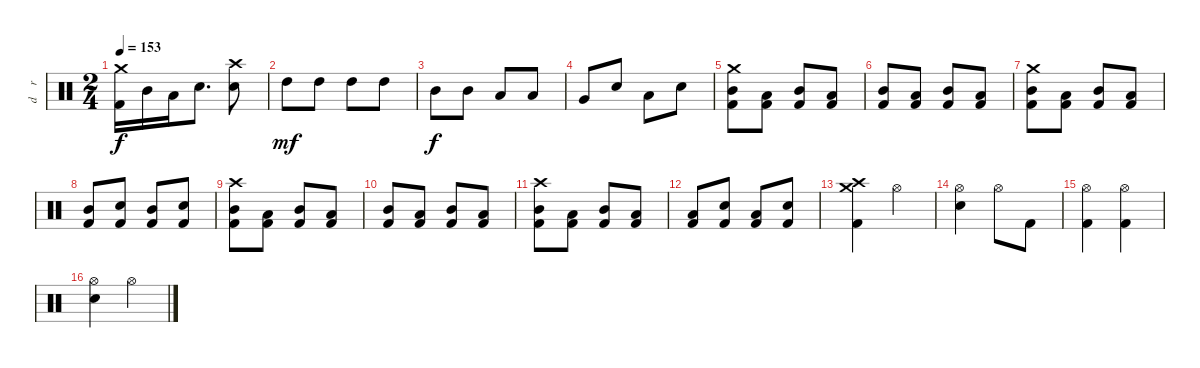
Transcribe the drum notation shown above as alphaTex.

\track ("d    r     u    m    s" "d    r    ") {instrument percussion}
\staff {score}
\articulation defaults
\ts (2 4)
\tempo 153
\clef neutral
\ks c
("Crash medium (hit)" "Kick (hit) 2").16{dy f} "Mid Tom (hit)".16 "Low Tom (hit)".16 "Electric Snare (hit)".8{d} ("Crash high (hit)" "Electric Snare (hit)").8 |
"High Tom (hit)".8{dy mf} "High Tom (hit)".8 "High Tom (hit)".8 "High Tom (hit)".8 |
"Mid Tom (hit)".8{dy f} "Mid Tom (hit)".8 "Low Tom (hit)".8 "Low Tom (hit)".8 |
"Very Low Tom (hit)".8 "Electric Snare (hit)".8 "Low Floor Tom (hit)".8 "Electric Snare (hit)".8 |
("Crash medium (hit)" "Mid Tom (hit)" "Kick (hit) 2").8 ("Low Tom (hit)" "Kick (hit) 2").8 ("Mid Tom (hit)" "Kick (hit) 2").8 ("Low Tom (hit)" "Kick (hit) 2").8 |
("Mid Tom (hit)" "Kick (hit) 2").8 ("Low Tom (hit)" "Kick (hit) 2").8 ("Mid Tom (hit)" "Kick (hit) 2").8 ("Low Tom (hit)" "Kick (hit) 2").8 |
("Crash medium (hit)" "Mid Tom (hit)" "Kick (hit) 2").8 ("Low Tom (hit)" "Kick (hit) 2").8 ("Mid Tom (hit)" "Kick (hit) 2").8 ("Low Tom (hit)" "Kick (hit) 2").8 |
("Mid Tom (hit)" "Kick (hit) 2").8 ("Electric Snare (hit)" "Kick (hit) 2").8 ("Mid Tom (hit)" "Kick (hit) 2").8 ("Electric Snare (hit)" "Kick (hit) 2").8 |
("Crash high (hit)" "Mid Tom (hit)" "Kick (hit) 2").8 ("Low Tom (hit)" "Kick (hit) 2").8 ("Mid Tom (hit)" "Kick (hit) 2").8 ("Low Tom (hit)" "Kick (hit) 2").8 |
("Mid Tom (hit)" "Kick (hit) 2").8 ("Low Tom (hit)" "Kick (hit) 2").8 ("Mid Tom (hit)" "Kick (hit) 2").8 ("Low Tom (hit)" "Kick (hit) 2").8 |
("Crash high (hit)" "Mid Tom (hit)" "Kick (hit) 2").8 ("Low Tom (hit)" "Kick (hit) 2").8 ("Mid Tom (hit)" "Kick (hit) 2").8 ("Low Tom (hit)" "Kick (hit) 2").8 |
("Low Tom (hit)" "Kick (hit) 2").8 ("Electric Snare (hit)" "Kick (hit) 2").8 ("Low Tom (hit)" "Kick (hit) 2").8 ("Electric Snare (hit)" "Kick (hit) 2").8 |
("Crash high (hit)" "Crash medium (hit)" "Kick (hit) 2").4 "Hi-Hat (open)".4 |
("Hi-Hat (open)" "Electric Snare (hit)").4 "Hi-Hat (open)".8 "Kick (hit) 2".8 |
("Hi-Hat (open)" "Kick (hit) 2").4 ("Hi-Hat (open)" "Kick (hit) 2").4 |
("Hi-Hat (open)" "Electric Snare (hit)").4 "Hi-Hat (open)".4
